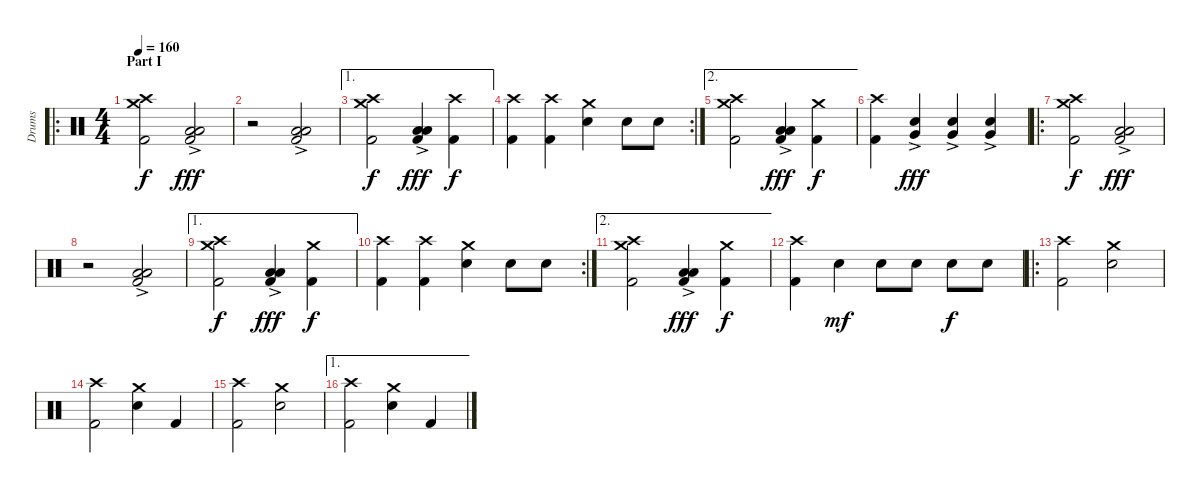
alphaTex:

\track ("Drums" "Drums") {instrument percussion}
\staff {score}
\articulation defaults
\ro
\ts (4 4)
\section ("" "Part I")
\tempo 160
\clef neutral
\ks c
("Crash high (hit)" "Crash medium (hit)" "Kick (hit) 2").2{dy f volume 16} ("Low Tom (hit)"{ac} "Low Floor Tom (hit)" "Kick (hit) 2").2{dy fff} |
r.2 ("Low Tom (hit)"{ac} "Low Floor Tom (hit)" "Kick (hit) 2").2 |
\ae 1
("Crash high (hit)" "Crash medium (hit)" "Kick (hit) 2").2{dy f} ("Low Tom (hit)"{ac} "Low Floor Tom (hit)" "Kick (hit) 2").4{dy fff} ("Crash high (hit)" "Kick (hit) 2").4{dy f} |
\rc 2
("Crash high (hit)" "Kick (hit) 2").4 ("Crash high (hit)" "Kick (hit) 2").4 ("Crash medium (hit)" "Snare (hit) 2").4 "Snare (hit) 2".8 "Snare (hit) 2".8 |
\ae 2
("Crash high (hit)" "Crash medium (hit)" "Kick (hit) 2").2 ("Low Tom (hit)"{ac} "Low Floor Tom (hit)" "Kick (hit) 2").4{dy fff} ("Crash medium (hit)" "Kick (hit) 2").4{dy f} |
("Crash high (hit)" "Kick (hit) 2").4 ("Snare (hit) 2" "Very Low Tom (hit)"{ac}).4{dy fff} ("Snare (hit) 2" "Very Low Tom (hit)"{ac}).4 ("Snare (hit) 2" "Very Low Tom (hit)"{ac}).4 |
\ro
("Crash high (hit)" "Crash medium (hit)" "Kick (hit) 2").2{dy f} ("Low Tom (hit)"{ac} "Low Floor Tom (hit)" "Kick (hit) 2").2{dy fff} |
r.2 ("Low Tom (hit)"{ac} "Low Floor Tom (hit)" "Kick (hit) 2").2 |
\ae 1
("Crash high (hit)" "Crash medium (hit)" "Kick (hit) 2").2{dy f} ("Low Tom (hit)"{ac} "Low Floor Tom (hit)" "Kick (hit) 2").4{dy fff} ("Crash medium (hit)" "Kick (hit) 2").4{dy f} |
\rc 2
("Crash high (hit)" "Kick (hit) 2").4 ("Crash high (hit)" "Kick (hit) 2").4 ("Crash medium (hit)" "Snare (hit) 2").4 "Snare (hit) 2".8 "Snare (hit) 2".8 |
\ae 2
("Crash high (hit)" "Crash medium (hit)" "Kick (hit) 2").2 ("Low Tom (hit)"{ac} "Low Floor Tom (hit)" "Kick (hit) 2").4{dy fff} ("Crash medium (hit)" "Kick (hit) 2").4{dy f} |
("Crash high (hit)" "Kick (hit) 2").4 "Snare (hit) 2".4{dy mf} "Snare (hit) 2".8 "Snare (hit) 2".8 "Snare (hit) 2".8{dy f} "Snare (hit) 2".8 |
\ro
("Crash high (hit)" "Kick (hit) 2").2 ("Crash medium (hit)" "Snare (hit) 2").2 |
("Crash high (hit)" "Kick (hit) 2").2 ("Crash medium (hit)" "Snare (hit) 2").4 "Kick (hit) 2".4 |
("Crash high (hit)" "Kick (hit) 2").2 ("Crash medium (hit)" "Snare (hit) 2").2 |
\ae 1
("Crash high (hit)" "Kick (hit) 2").2 ("Crash medium (hit)" "Snare (hit) 2").4 "Kick (hit) 2".4
